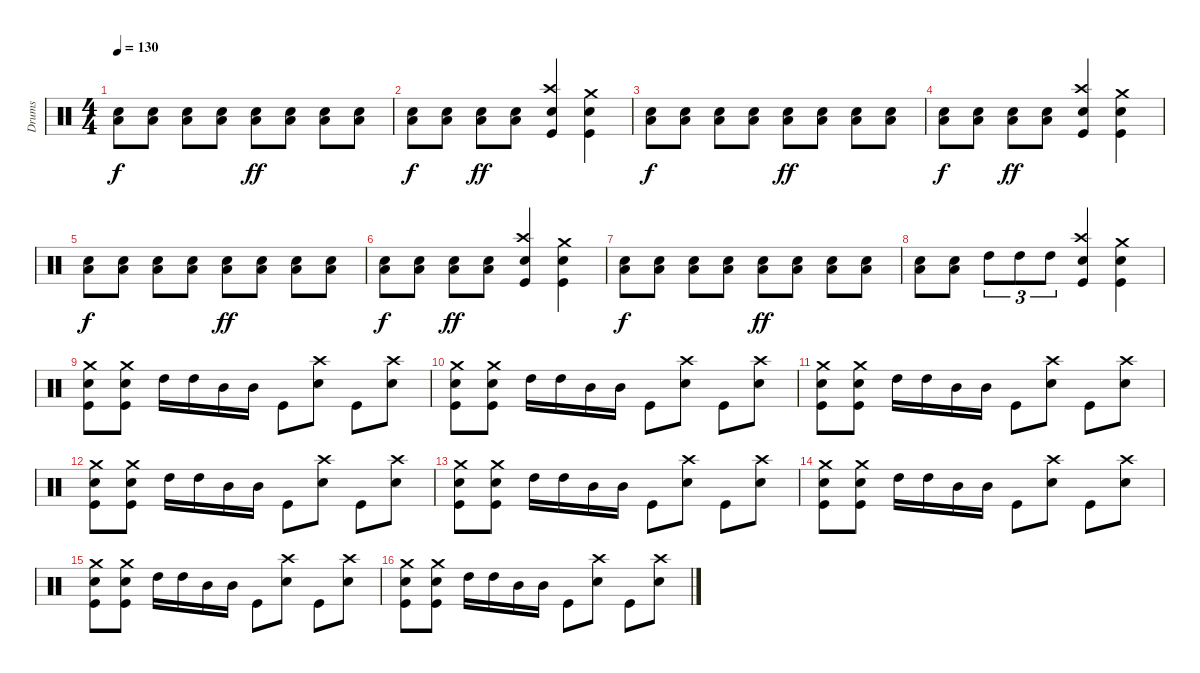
\track ("Drums" "Drums") {instrument percussion}
\staff {score}
\articulation defaults
\ts (4 4)
\tempo 130
\clef neutral
\ks c
("Low Floor Tom (hit)" "Electric Snare (hit)").8{dy f} ("Low Floor Tom (hit)" "Electric Snare (hit)").8 ("Low Floor Tom (hit)" "Electric Snare (hit)").8 ("Low Floor Tom (hit)" "Electric Snare (hit)").8 ("Low Floor Tom (hit)" "Electric Snare (hit)").8{dy ff} ("Low Floor Tom (hit)" "Electric Snare (hit)").8 ("Low Floor Tom (hit)" "Electric Snare (hit)").8 ("Low Floor Tom (hit)" "Electric Snare (hit)").8 |
("Low Floor Tom (hit)" "Electric Snare (hit)").8{dy f} ("Low Floor Tom (hit)" "Electric Snare (hit)").8 ("Low Floor Tom (hit)" "Electric Snare (hit)").8{dy ff} ("Low Floor Tom (hit)" "Electric Snare (hit)").8 ("Crash high (hit)" "Electric Snare (hit)" "Kick (hit)").4 ("Crash medium (hit)" "Electric Snare (hit)" "Kick (hit)").4 |
("Low Floor Tom (hit)" "Electric Snare (hit)").8{dy f} ("Low Floor Tom (hit)" "Electric Snare (hit)").8 ("Low Floor Tom (hit)" "Electric Snare (hit)").8 ("Low Floor Tom (hit)" "Electric Snare (hit)").8 ("Low Floor Tom (hit)" "Electric Snare (hit)").8{dy ff} ("Low Floor Tom (hit)" "Electric Snare (hit)").8 ("Low Floor Tom (hit)" "Electric Snare (hit)").8 ("Low Floor Tom (hit)" "Electric Snare (hit)").8 |
("Low Floor Tom (hit)" "Electric Snare (hit)").8{dy f} ("Low Floor Tom (hit)" "Electric Snare (hit)").8 ("Low Floor Tom (hit)" "Electric Snare (hit)").8{dy ff} ("Low Floor Tom (hit)" "Electric Snare (hit)").8 ("Crash high (hit)" "Electric Snare (hit)" "Kick (hit)").4 ("Crash medium (hit)" "Electric Snare (hit)" "Kick (hit)").4 |
("Low Floor Tom (hit)" "Electric Snare (hit)").8{dy f} ("Low Floor Tom (hit)" "Electric Snare (hit)").8 ("Low Floor Tom (hit)" "Electric Snare (hit)").8 ("Low Floor Tom (hit)" "Electric Snare (hit)").8 ("Low Floor Tom (hit)" "Electric Snare (hit)").8{dy ff} ("Low Floor Tom (hit)" "Electric Snare (hit)").8 ("Low Floor Tom (hit)" "Electric Snare (hit)").8 ("Low Floor Tom (hit)" "Electric Snare (hit)").8 |
("Low Floor Tom (hit)" "Electric Snare (hit)").8{dy f} ("Low Floor Tom (hit)" "Electric Snare (hit)").8 ("Low Floor Tom (hit)" "Electric Snare (hit)").8{dy ff} ("Low Floor Tom (hit)" "Electric Snare (hit)").8 ("Crash high (hit)" "Electric Snare (hit)" "Kick (hit)").4 ("Crash medium (hit)" "Electric Snare (hit)" "Kick (hit)").4 |
("Low Floor Tom (hit)" "Electric Snare (hit)").8{dy f} ("Low Floor Tom (hit)" "Electric Snare (hit)").8 ("Low Floor Tom (hit)" "Electric Snare (hit)").8 ("Low Floor Tom (hit)" "Electric Snare (hit)").8 ("Low Floor Tom (hit)" "Electric Snare (hit)").8{dy ff} ("Low Floor Tom (hit)" "Electric Snare (hit)").8 ("Low Floor Tom (hit)" "Electric Snare (hit)").8 ("Low Floor Tom (hit)" "Electric Snare (hit)").8 |
("Low Floor Tom (hit)" "Electric Snare (hit)").8 ("Low Floor Tom (hit)" "Electric Snare (hit)").8 "High Tom (hit)".8{tu (3 2)} "High Tom (hit)".8{tu (3 2)} "High Tom (hit)".8{tu (3 2)} ("Crash high (hit)" "Electric Snare (hit)" "Kick (hit)").4 ("Crash medium (hit)" "Electric Snare (hit)" "Kick (hit)").4 |
("Crash medium (hit)" "Electric Snare (hit)" "Kick (hit)").8 ("Crash medium (hit)" "Electric Snare (hit)" "Kick (hit)").8 "High Tom (hit)".16 "High Tom (hit)".16 "Mid Tom (hit)".16 "Mid Tom (hit)".16 "Kick (hit)".8 ("Crash high (hit)" "Electric Snare (hit)").8 "Kick (hit)".8 ("Crash high (hit)" "Electric Snare (hit)").8 |
("Crash medium (hit)" "Electric Snare (hit)" "Kick (hit)").8 ("Crash medium (hit)" "Electric Snare (hit)" "Kick (hit)").8 "High Tom (hit)".16 "High Tom (hit)".16 "Mid Tom (hit)".16 "Mid Tom (hit)".16 "Kick (hit)".8 ("Crash high (hit)" "Electric Snare (hit)").8 "Kick (hit)".8 ("Crash high (hit)" "Electric Snare (hit)").8 |
("Crash medium (hit)" "Electric Snare (hit)" "Kick (hit)").8 ("Crash medium (hit)" "Electric Snare (hit)" "Kick (hit)").8 "High Tom (hit)".16 "High Tom (hit)".16 "Mid Tom (hit)".16 "Mid Tom (hit)".16 "Kick (hit)".8 ("Crash high (hit)" "Electric Snare (hit)").8 "Kick (hit)".8 ("Crash high (hit)" "Electric Snare (hit)").8 |
("Crash medium (hit)" "Electric Snare (hit)" "Kick (hit)").8 ("Crash medium (hit)" "Electric Snare (hit)" "Kick (hit)").8 "High Tom (hit)".16 "High Tom (hit)".16 "Mid Tom (hit)".16 "Mid Tom (hit)".16 "Kick (hit)".8 ("Crash high (hit)" "Electric Snare (hit)").8 "Kick (hit)".8 ("Crash high (hit)" "Electric Snare (hit)").8 |
("Crash medium (hit)" "Electric Snare (hit)" "Kick (hit)").8 ("Crash medium (hit)" "Electric Snare (hit)" "Kick (hit)").8 "High Tom (hit)".16 "High Tom (hit)".16 "Mid Tom (hit)".16 "Mid Tom (hit)".16 "Kick (hit)".8 ("Crash high (hit)" "Electric Snare (hit)").8 "Kick (hit)".8 ("Crash high (hit)" "Electric Snare (hit)").8 |
("Crash medium (hit)" "Electric Snare (hit)" "Kick (hit)").8 ("Crash medium (hit)" "Electric Snare (hit)" "Kick (hit)").8 "High Tom (hit)".16 "High Tom (hit)".16 "Mid Tom (hit)".16 "Mid Tom (hit)".16 "Kick (hit)".8 ("Crash high (hit)" "Electric Snare (hit)").8 "Kick (hit)".8 ("Crash high (hit)" "Electric Snare (hit)").8 |
("Crash medium (hit)" "Electric Snare (hit)" "Kick (hit)").8 ("Crash medium (hit)" "Electric Snare (hit)" "Kick (hit)").8 "High Tom (hit)".16 "High Tom (hit)".16 "Mid Tom (hit)".16 "Mid Tom (hit)".16 "Kick (hit)".8 ("Crash high (hit)" "Electric Snare (hit)").8 "Kick (hit)".8 ("Crash high (hit)" "Electric Snare (hit)").8 |
("Crash medium (hit)" "Electric Snare (hit)" "Kick (hit)").8 ("Crash medium (hit)" "Electric Snare (hit)" "Kick (hit)").8 "High Tom (hit)".16 "High Tom (hit)".16 "Mid Tom (hit)".16 "Mid Tom (hit)".16 "Kick (hit)".8 ("Crash high (hit)" "Electric Snare (hit)").8 "Kick (hit)".8 ("Crash high (hit)" "Electric Snare (hit)").8
